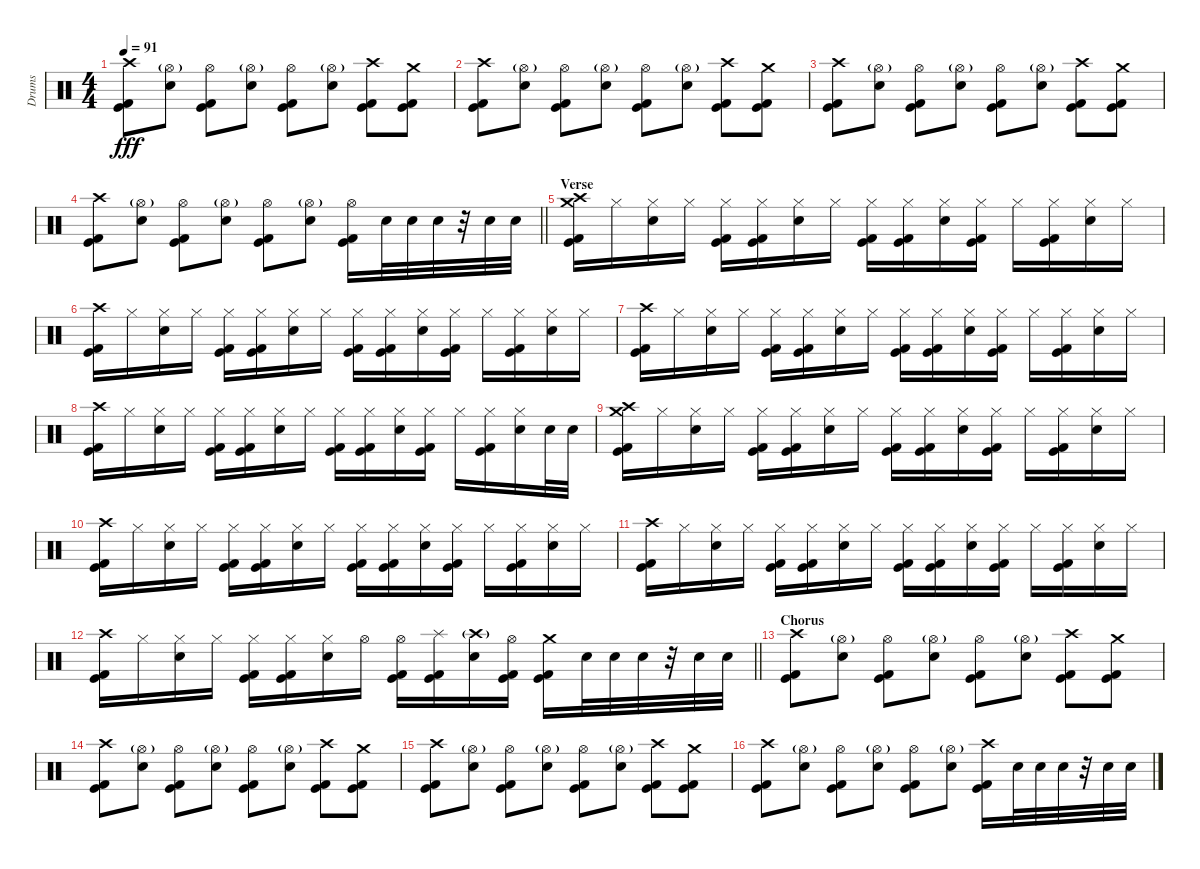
\track ("Drums" "Drums") {instrument percussion}
\staff {score}
\articulation defaults
\ts (4 4)
\tempo 91
\clef neutral
\ks c
("Crash high (hit)" "Kick (hit)" "Kick (hit) 2").8{dy fff} ("Hi-Hat (open)"{g} "Electric Snare (hit)").8 ("Hi-Hat (open)" "Kick (hit)" "Kick (hit) 2").8 ("Hi-Hat (open)"{g} "Electric Snare (hit)").8 ("Hi-Hat (open)" "Kick (hit)" "Kick (hit) 2").8 ("Hi-Hat (open)"{g} "Electric Snare (hit)").8 ("Crash high (hit)" "Kick (hit)" "Kick (hit) 2").8 ("Crash medium (hit)" "Kick (hit)" "Kick (hit) 2").8 |
("Crash high (hit)" "Kick (hit)" "Kick (hit) 2").8 ("Hi-Hat (open)"{g} "Electric Snare (hit)").8 ("Hi-Hat (open)" "Kick (hit)" "Kick (hit) 2").8 ("Hi-Hat (open)"{g} "Electric Snare (hit)").8 ("Hi-Hat (open)" "Kick (hit)" "Kick (hit) 2").8 ("Hi-Hat (open)"{g} "Electric Snare (hit)").8 ("Crash high (hit)" "Kick (hit)" "Kick (hit) 2").8 ("Crash medium (hit)" "Kick (hit)" "Kick (hit) 2").8 |
("Crash high (hit)" "Kick (hit)" "Kick (hit) 2").8 ("Hi-Hat (open)"{g} "Electric Snare (hit)").8 ("Hi-Hat (open)" "Kick (hit)" "Kick (hit) 2").8 ("Hi-Hat (open)"{g} "Electric Snare (hit)").8 ("Hi-Hat (open)" "Kick (hit)" "Kick (hit) 2").8 ("Hi-Hat (open)"{g} "Electric Snare (hit)").8 ("Crash high (hit)" "Kick (hit)" "Kick (hit) 2").8 ("Crash medium (hit)" "Kick (hit)" "Kick (hit) 2").8 |
\barLineRight lightlight
("Crash high (hit)" "Kick (hit)" "Kick (hit) 2").8 ("Hi-Hat (open)"{g} "Electric Snare (hit)").8 ("Hi-Hat (open)" "Kick (hit)" "Kick (hit) 2").8 ("Hi-Hat (open)"{g} "Electric Snare (hit)").8 ("Hi-Hat (open)" "Kick (hit)" "Kick (hit) 2").8 ("Hi-Hat (open)"{g} "Electric Snare (hit)").8 ("Hi-Hat (open)" "Kick (hit)" "Kick (hit) 2").16 "Electric Snare (hit)".32 "Electric Snare (hit)".32 "Electric Snare (hit)".32 r.32 "Electric Snare (hit)".32 "Electric Snare (hit)".32 |
\section ("" "Verse")
("Crash high (hit)" "Crash medium (hit)" "Kick (hit)" "Kick (hit) 2").16 "Hi-Hat (closed)".16 ("Hi-Hat (closed)" "Electric Snare (hit)").16 "Hi-Hat (closed)".16 ("Hi-Hat (closed)" "Kick (hit)" "Kick (hit) 2").16 ("Hi-Hat (closed)" "Kick (hit)" "Kick (hit) 2").16 ("Hi-Hat (closed)" "Electric Snare (hit)").16 "Hi-Hat (closed)".16 ("Hi-Hat (closed)" "Kick (hit)" "Kick (hit) 2").16 ("Hi-Hat (closed)" "Kick (hit)" "Kick (hit) 2").16 ("Hi-Hat (closed)" "Electric Snare (hit)").16 ("Hi-Hat (closed)" "Kick (hit)" "Kick (hit) 2").16 "Hi-Hat (closed)".16 ("Hi-Hat (closed)" "Kick (hit)" "Kick (hit) 2").16 ("Hi-Hat (closed)" "Electric Snare (hit)").16 "Hi-Hat (closed)".16 |
("Crash high (hit)" "Kick (hit)" "Kick (hit) 2").16 "Hi-Hat (closed)".16 ("Hi-Hat (closed)" "Electric Snare (hit)").16 "Hi-Hat (closed)".16 ("Hi-Hat (closed)" "Kick (hit)" "Kick (hit) 2").16 ("Hi-Hat (closed)" "Kick (hit)" "Kick (hit) 2").16 ("Hi-Hat (closed)" "Electric Snare (hit)").16 "Hi-Hat (closed)".16 ("Hi-Hat (closed)" "Kick (hit)" "Kick (hit) 2").16 ("Hi-Hat (closed)" "Kick (hit)" "Kick (hit) 2").16 ("Hi-Hat (closed)" "Electric Snare (hit)").16 ("Hi-Hat (closed)" "Kick (hit)" "Kick (hit) 2").16 "Hi-Hat (closed)".16 ("Hi-Hat (closed)" "Kick (hit)" "Kick (hit) 2").16 ("Hi-Hat (closed)" "Electric Snare (hit)").16 "Hi-Hat (closed)".16 |
("Crash high (hit)" "Kick (hit)" "Kick (hit) 2").16 "Hi-Hat (closed)".16 ("Hi-Hat (closed)" "Electric Snare (hit)").16 "Hi-Hat (closed)".16 ("Hi-Hat (closed)" "Kick (hit)" "Kick (hit) 2").16 ("Hi-Hat (closed)" "Kick (hit)" "Kick (hit) 2").16 ("Hi-Hat (closed)" "Electric Snare (hit)").16 "Hi-Hat (closed)".16 ("Hi-Hat (closed)" "Kick (hit)" "Kick (hit) 2").16 ("Hi-Hat (closed)" "Kick (hit)" "Kick (hit) 2").16 ("Hi-Hat (closed)" "Electric Snare (hit)").16 ("Hi-Hat (closed)" "Kick (hit)" "Kick (hit) 2").16 "Hi-Hat (closed)".16 ("Hi-Hat (closed)" "Kick (hit)" "Kick (hit) 2").16 ("Hi-Hat (closed)" "Electric Snare (hit)").16 "Hi-Hat (closed)".16 |
("Crash high (hit)" "Kick (hit)" "Kick (hit) 2").16 "Hi-Hat (closed)".16 ("Hi-Hat (closed)" "Electric Snare (hit)").16 "Hi-Hat (closed)".16 ("Hi-Hat (closed)" "Kick (hit)" "Kick (hit) 2").16 ("Hi-Hat (closed)" "Kick (hit)" "Kick (hit) 2").16 ("Hi-Hat (closed)" "Electric Snare (hit)").16 "Hi-Hat (closed)".16 ("Hi-Hat (closed)" "Kick (hit)" "Kick (hit) 2").16 ("Hi-Hat (closed)" "Kick (hit)" "Kick (hit) 2").16 ("Hi-Hat (closed)" "Electric Snare (hit)").16 ("Hi-Hat (closed)" "Kick (hit)" "Kick (hit) 2").16 "Hi-Hat (closed)".16 ("Hi-Hat (closed)" "Kick (hit)" "Kick (hit) 2").16 ("Hi-Hat (closed)" "Electric Snare (hit)").16 "Electric Snare (hit)".32 "Electric Snare (hit)".32 |
("Crash high (hit)" "Crash medium (hit)" "Kick (hit)" "Kick (hit) 2").16 "Hi-Hat (closed)".16 ("Hi-Hat (closed)" "Electric Snare (hit)").16 "Hi-Hat (closed)".16 ("Hi-Hat (closed)" "Kick (hit)" "Kick (hit) 2").16 ("Hi-Hat (closed)" "Kick (hit)" "Kick (hit) 2").16 ("Hi-Hat (closed)" "Electric Snare (hit)").16 "Hi-Hat (closed)".16 ("Hi-Hat (closed)" "Kick (hit)" "Kick (hit) 2").16 ("Hi-Hat (closed)" "Kick (hit)" "Kick (hit) 2").16 ("Hi-Hat (closed)" "Electric Snare (hit)").16 ("Hi-Hat (closed)" "Kick (hit)" "Kick (hit) 2").16 "Hi-Hat (closed)".16 ("Hi-Hat (closed)" "Kick (hit)" "Kick (hit) 2").16 ("Hi-Hat (closed)" "Electric Snare (hit)").16 "Hi-Hat (closed)".16 |
("Crash high (hit)" "Kick (hit)" "Kick (hit) 2").16 "Hi-Hat (closed)".16 ("Hi-Hat (closed)" "Electric Snare (hit)").16 "Hi-Hat (closed)".16 ("Hi-Hat (closed)" "Kick (hit)" "Kick (hit) 2").16 ("Hi-Hat (closed)" "Kick (hit)" "Kick (hit) 2").16 ("Hi-Hat (closed)" "Electric Snare (hit)").16 "Hi-Hat (closed)".16 ("Hi-Hat (closed)" "Kick (hit)" "Kick (hit) 2").16 ("Hi-Hat (closed)" "Kick (hit)" "Kick (hit) 2").16 ("Hi-Hat (closed)" "Electric Snare (hit)").16 ("Hi-Hat (closed)" "Kick (hit)" "Kick (hit) 2").16 "Hi-Hat (closed)".16 ("Hi-Hat (closed)" "Kick (hit)" "Kick (hit) 2").16 ("Hi-Hat (closed)" "Electric Snare (hit)").16 "Hi-Hat (closed)".16 |
("Crash high (hit)" "Kick (hit)" "Kick (hit) 2").16 "Hi-Hat (closed)".16 ("Hi-Hat (closed)" "Electric Snare (hit)").16 "Hi-Hat (closed)".16 ("Hi-Hat (closed)" "Kick (hit)" "Kick (hit) 2").16 ("Hi-Hat (closed)" "Kick (hit)" "Kick (hit) 2").16 ("Hi-Hat (closed)" "Electric Snare (hit)").16 "Hi-Hat (closed)".16 ("Hi-Hat (closed)" "Kick (hit)" "Kick (hit) 2").16 ("Hi-Hat (closed)" "Kick (hit)" "Kick (hit) 2").16 ("Hi-Hat (closed)" "Electric Snare (hit)").16 ("Hi-Hat (closed)" "Kick (hit)" "Kick (hit) 2").16 "Hi-Hat (closed)".16 ("Hi-Hat (closed)" "Kick (hit)" "Kick (hit) 2").16 ("Hi-Hat (closed)" "Electric Snare (hit)").16 "Hi-Hat (closed)".16 |
\barLineRight lightlight
("Crash high (hit)" "Kick (hit)" "Kick (hit) 2").16 "Hi-Hat (closed)".16 ("Hi-Hat (closed)" "Electric Snare (hit)").16 "Hi-Hat (closed)".16 ("Hi-Hat (closed)" "Kick (hit)" "Kick (hit) 2").16 ("Hi-Hat (closed)" "Kick (hit)" "Kick (hit) 2").16 ("Hi-Hat (closed)" "Electric Snare (hit)").16 "Hi-Hat (open)".16 ("Hi-Hat (open)" "Kick (hit)" "Kick (hit) 2").16 ("Splash (hit)" "Kick (hit)" "Kick (hit) 2").16 ("Crash high (hit)"{g} "Electric Snare (hit)").16 ("Hi-Hat (open)" "Kick (hit)" "Kick (hit) 2").16 ("Crash medium (hit)" "Kick (hit)" "Kick (hit) 2").16 "Electric Snare (hit)".32 "Electric Snare (hit)".32 "Electric Snare (hit)".32 r.32 "Electric Snare (hit)".32 "Electric Snare (hit)".32 |
\section ("" "Chorus")
("Crash high (hit)" "Kick (hit)" "Kick (hit) 2").8 ("Hi-Hat (open)"{g} "Electric Snare (hit)").8 ("Hi-Hat (open)" "Kick (hit)" "Kick (hit) 2").8 ("Hi-Hat (open)"{g} "Electric Snare (hit)").8 ("Hi-Hat (open)" "Kick (hit)" "Kick (hit) 2").8 ("Hi-Hat (open)"{g} "Electric Snare (hit)").8 ("Crash high (hit)" "Kick (hit)" "Kick (hit) 2").8 ("Crash medium (hit)" "Kick (hit)" "Kick (hit) 2").8 |
("Crash high (hit)" "Kick (hit)" "Kick (hit) 2").8 ("Hi-Hat (open)"{g} "Electric Snare (hit)").8 ("Hi-Hat (open)" "Kick (hit)" "Kick (hit) 2").8 ("Hi-Hat (open)"{g} "Electric Snare (hit)").8 ("Hi-Hat (open)" "Kick (hit)" "Kick (hit) 2").8 ("Hi-Hat (open)"{g} "Electric Snare (hit)").8 ("Crash high (hit)" "Kick (hit)" "Kick (hit) 2").8 ("Crash medium (hit)" "Kick (hit)" "Kick (hit) 2").8 |
("Crash high (hit)" "Kick (hit)" "Kick (hit) 2").8 ("Hi-Hat (open)"{g} "Electric Snare (hit)").8 ("Hi-Hat (open)" "Kick (hit)" "Kick (hit) 2").8 ("Hi-Hat (open)"{g} "Electric Snare (hit)").8 ("Hi-Hat (open)" "Kick (hit)" "Kick (hit) 2").8 ("Hi-Hat (open)"{g} "Electric Snare (hit)").8 ("Crash high (hit)" "Kick (hit)" "Kick (hit) 2").8 ("Crash medium (hit)" "Kick (hit)" "Kick (hit) 2").8 |
("Crash high (hit)" "Kick (hit)" "Kick (hit) 2").8 ("Hi-Hat (open)"{g} "Electric Snare (hit)").8 ("Hi-Hat (open)" "Kick (hit)" "Kick (hit) 2").8 ("Hi-Hat (open)"{g} "Electric Snare (hit)").8 ("Hi-Hat (open)" "Kick (hit)" "Kick (hit) 2").8 ("Hi-Hat (open)"{g} "Electric Snare (hit)").8 ("Crash high (hit)" "Kick (hit)" "Kick (hit) 2").16 "Electric Snare (hit)".32 "Electric Snare (hit)".32 "Electric Snare (hit)".32 r.32 "Electric Snare (hit)".32 "Electric Snare (hit)".32
